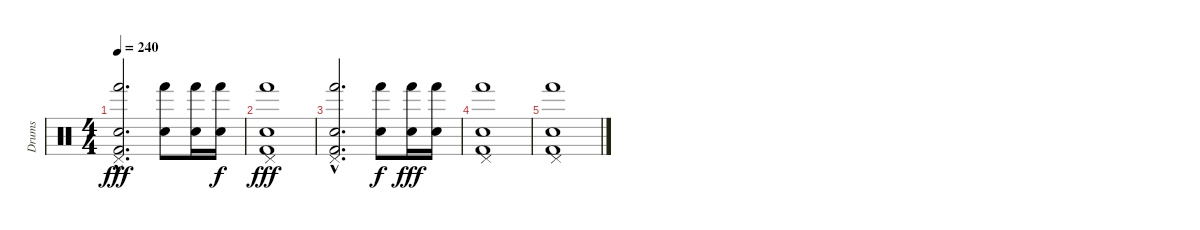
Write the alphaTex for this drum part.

\track ("Drums" "Drums") {instrument percussion}
\staff {score}
\articulation defaults
\ts (4 4)
\tempo 240
\clef neutral
\ks c
("Pedal Hi-Hat (hit)"{hac} "Hand (hit)"{hac} "Electric Snare (hit)"{hac} "Kick (hit) 2"{hac}).2{d dy fff} ("Hand (hit)" "Electric Snare (hit)").8 ("Hand (hit)" "Electric Snare (hit)").16 ("Hand (hit)" "Electric Snare (hit)").16{dy f} |
("Pedal Hi-Hat (hit)" "Hand (hit)" "Electric Snare (hit)" "Kick (hit) 2").1{dy fff} |
("Pedal Hi-Hat (hit)"{hac} "Hand (hit)"{hac} "Electric Snare (hit)"{hac} "Kick (hit) 2"{hac}).2{d} ("Hand (hit)" "Electric Snare (hit)").8{dy f} ("Hand (hit)" "Electric Snare (hit)").16{dy fff} ("Hand (hit)" "Electric Snare (hit)").16 |
("Pedal Hi-Hat (hit)" "Hand (hit)" "Electric Snare (hit)" "Kick (hit) 2").1 |
("Pedal Hi-Hat (hit)" "Hand (hit)" "Electric Snare (hit)" "Kick (hit) 2").1
